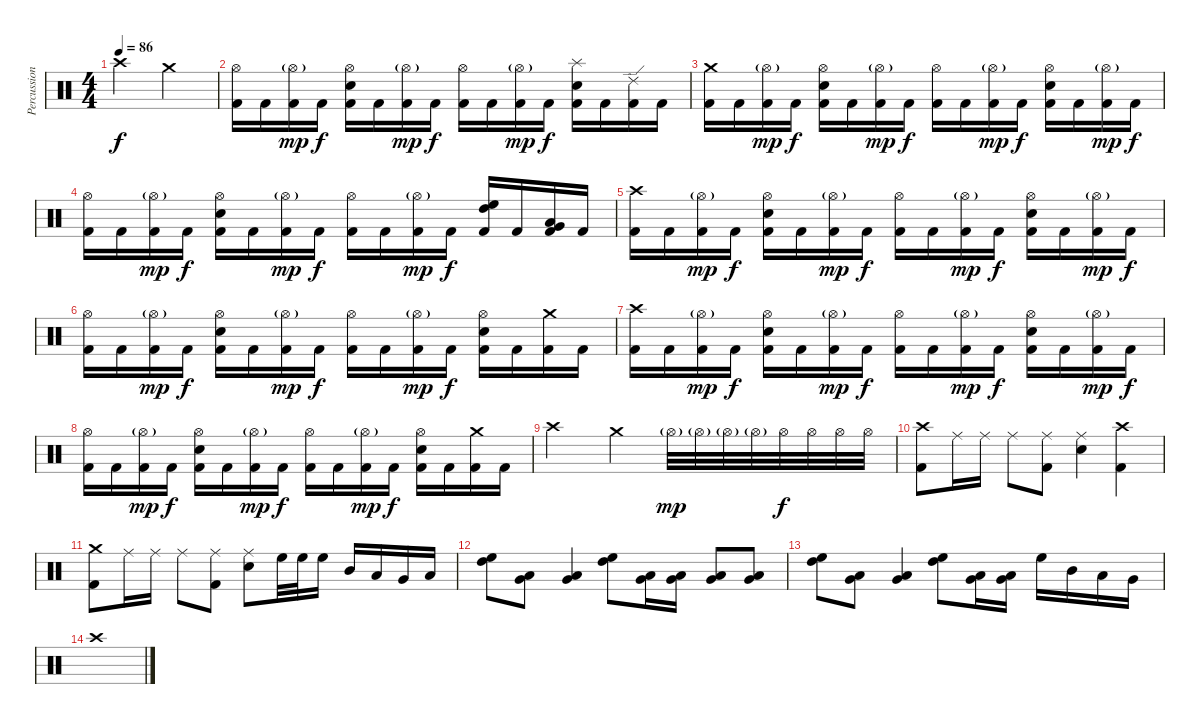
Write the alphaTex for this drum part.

\track ("Percussion" "Percussion") {instrument percussion}
\staff {score}
\articulation defaults
\ts (4 4)
\tempo 86
\clef neutral
\ks c "Crash high (hit)".2{dy f} "Crash medium (hit)".2
|
("Hi-Hat (open)" "Kick (hit) 2").16 "Kick (hit) 2".16 ("Hi-Hat (open)"{g} "Kick (hit) 2").16{dy mp} "Kick (hit) 2".16{dy f} ("Hi-Hat (open)" "Snare (hit) 2" "Kick (hit) 2").16 "Kick (hit) 2".16 ("Hi-Hat (open)"{g} "Kick (hit) 2").16{dy mp} "Kick (hit) 2".16{dy f} ("Hi-Hat (open)" "Kick (hit) 2").16 "Kick (hit) 2".16 ("Hi-Hat (open)"{g} "Kick (hit) 2").16{dy mp} "Kick (hit) 2".16{dy f} ("Splash (hit)" "Snare (hit) 2" "Kick (hit) 2").16 "Kick (hit) 2".16 ("Ride (edge) 2" "Kick (hit) 2").16 "Kick (hit) 2".16 |
("Crash medium (hit)" "Kick (hit) 2").16 "Kick (hit) 2".16 ("Hi-Hat (open)"{g} "Kick (hit) 2").16{dy mp} "Kick (hit) 2".16{dy f} ("Hi-Hat (open)" "Snare (hit) 2" "Kick (hit) 2").16 "Kick (hit) 2".16 ("Hi-Hat (open)"{g} "Kick (hit) 2").16{dy mp} "Kick (hit) 2".16{dy f} ("Hi-Hat (open)" "Kick (hit) 2").16 "Kick (hit) 2".16 ("Hi-Hat (open)"{g} "Kick (hit) 2").16{dy mp} "Kick (hit) 2".16{dy f} ("Hi-Hat (open)" "Snare (hit) 2" "Kick (hit) 2").16 "Kick (hit) 2".16 ("Hi-Hat (open)"{g} "Kick (hit) 2").16{dy mp} "Kick (hit) 2".16{dy f} |
("Hi-Hat (open)" "Kick (hit) 2").16 "Kick (hit) 2".16 ("Hi-Hat (open)"{g} "Kick (hit) 2").16{dy mp} "Kick (hit) 2".16{dy f} ("Hi-Hat (open)" "Snare (hit) 2" "Kick (hit) 2").16 "Kick (hit) 2".16 ("Hi-Hat (open)"{g} "Kick (hit) 2").16{dy mp} "Kick (hit) 2".16{dy f} ("Hi-Hat (open)" "Kick (hit) 2").16 "Kick (hit) 2".16 ("Hi-Hat (open)"{g} "Kick (hit) 2").16{dy mp} "Kick (hit) 2".16{dy f} ("High Floor Tom (hit)" "High Tom (hit)" "Kick (hit) 2").16 "Kick (hit) 2".16 ("Low Tom (hit)" "Very Low Tom (hit)" "Kick (hit) 2").16 "Kick (hit) 2".16 |
("Crash high (hit)" "Kick (hit) 2").16 "Kick (hit) 2".16 ("Hi-Hat (open)"{g} "Kick (hit) 2").16{dy mp} "Kick (hit) 2".16{dy f} ("Hi-Hat (open)" "Snare (hit) 2" "Kick (hit) 2").16 "Kick (hit) 2".16 ("Hi-Hat (open)"{g} "Kick (hit) 2").16{dy mp} "Kick (hit) 2".16{dy f} ("Hi-Hat (open)" "Kick (hit) 2").16 "Kick (hit) 2".16 ("Hi-Hat (open)"{g} "Kick (hit) 2").16{dy mp} "Kick (hit) 2".16{dy f} ("Hi-Hat (open)" "Snare (hit) 2" "Kick (hit) 2").16 "Kick (hit) 2".16 ("Hi-Hat (open)"{g} "Kick (hit) 2").16{dy mp} "Kick (hit) 2".16{dy f} |
("Hi-Hat (open)" "Kick (hit) 2").16 "Kick (hit) 2".16 ("Hi-Hat (open)"{g} "Kick (hit) 2").16{dy mp} "Kick (hit) 2".16{dy f} ("Hi-Hat (open)" "Snare (hit) 2" "Kick (hit) 2").16 "Kick (hit) 2".16 ("Hi-Hat (open)"{g} "Kick (hit) 2").16{dy mp} "Kick (hit) 2".16{dy f} ("Hi-Hat (open)" "Kick (hit) 2").16 "Kick (hit) 2".16 ("Hi-Hat (open)"{g} "Kick (hit) 2").16{dy mp} "Kick (hit) 2".16{dy f} ("Hi-Hat (open)" "Snare (hit) 2" "Kick (hit) 2").16 "Kick (hit) 2".16 ("Crash medium (hit)" "Kick (hit) 2").16 "Kick (hit) 2".16 |
("Crash high (hit)" "Kick (hit) 2").16 "Kick (hit) 2".16 ("Hi-Hat (open)"{g} "Kick (hit) 2").16{dy mp} "Kick (hit) 2".16{dy f} ("Hi-Hat (open)" "Snare (hit) 2" "Kick (hit) 2").16 "Kick (hit) 2".16 ("Hi-Hat (open)"{g} "Kick (hit) 2").16{dy mp} "Kick (hit) 2".16{dy f} ("Hi-Hat (open)" "Kick (hit) 2").16 "Kick (hit) 2".16 ("Hi-Hat (open)"{g} "Kick (hit) 2").16{dy mp} "Kick (hit) 2".16{dy f} ("Hi-Hat (open)" "Snare (hit) 2" "Kick (hit) 2").16 "Kick (hit) 2".16 ("Hi-Hat (open)"{g} "Kick (hit) 2").16{dy mp} "Kick (hit) 2".16{dy f} |
("Hi-Hat (open)" "Kick (hit) 2").16 "Kick (hit) 2".16 ("Hi-Hat (open)"{g} "Kick (hit) 2").16{dy mp} "Kick (hit) 2".16{dy f} ("Hi-Hat (open)" "Snare (hit) 2" "Kick (hit) 2").16 "Kick (hit) 2".16 ("Hi-Hat (open)"{g} "Kick (hit) 2").16{dy mp} "Kick (hit) 2".16{dy f} ("Hi-Hat (open)" "Kick (hit) 2").16 "Kick (hit) 2".16 ("Hi-Hat (open)"{g} "Kick (hit) 2").16{dy mp} "Kick (hit) 2".16{dy f} ("Hi-Hat (open)" "Snare (hit) 2" "Kick (hit) 2").16 "Kick (hit) 2".16 ("Crash medium (hit)" "Kick (hit) 2").16 "Kick (hit) 2".16 |
"Crash high (hit)".2 "Crash medium (hit)".4 "Hi-Hat (open)"{g}.32{dy mp} "Hi-Hat (open)"{g}.32 "Hi-Hat (open)"{g}.32 "Hi-Hat (open)"{g}.32 "Hi-Hat (open)".32{dy f} "Hi-Hat (open)".32 "Hi-Hat (open)".32 "Hi-Hat (open)".32 |
("Crash high (hit)" "Kick (hit) 2").8 "Ride (middle)".16 "Ride (middle)".16 "Ride (middle)".8 ("Ride (middle)" "Kick (hit) 2").8 ("Ride (middle)" "Snare (hit) 2").4 ("Crash high (hit)" "Kick (hit) 2").4 |
("Crash medium (hit)" "Kick (hit) 2").8 "Ride (middle)".16 "Ride (middle)".16 "Ride (middle)".8 ("Ride (middle)" "Kick (hit) 2").8 ("Ride (middle)" "Snare (hit) 2").8 "High Floor Tom (hit)".32 "High Floor Tom (hit)".32 "High Floor Tom (hit)".16 "Mid Tom (hit)".16 "Low Tom (hit)".16 "Very Low Tom (hit)".16 "Low Floor Tom (hit)".16 |
("High Floor Tom (hit)" "High Tom (hit)").8 ("Low Tom (hit)" "Very Low Tom (hit)").8 ("Low Tom (hit)" "Very Low Tom (hit)").4 ("High Floor Tom (hit)" "High Tom (hit)").8 ("Low Tom (hit)" "Very Low Tom (hit)").16 ("Low Tom (hit)" "Very Low Tom (hit)").16 ("Very Low Tom (hit)" "Low Floor Tom (hit)").8 ("Very Low Tom (hit)" "Low Floor Tom (hit)").8 |
("High Floor Tom (hit)" "High Tom (hit)").8 ("Low Tom (hit)" "Very Low Tom (hit)").8 ("Low Tom (hit)" "Very Low Tom (hit)").4 ("High Floor Tom (hit)" "High Tom (hit)").8 ("Low Tom (hit)" "Very Low Tom (hit)").16 ("Low Tom (hit)" "Very Low Tom (hit)").16 "High Floor Tom (hit)".16 "Mid Tom (hit)".16 "Low Tom (hit)".16 "Very Low Tom (hit)".16 |
"Crash high (hit)".1
